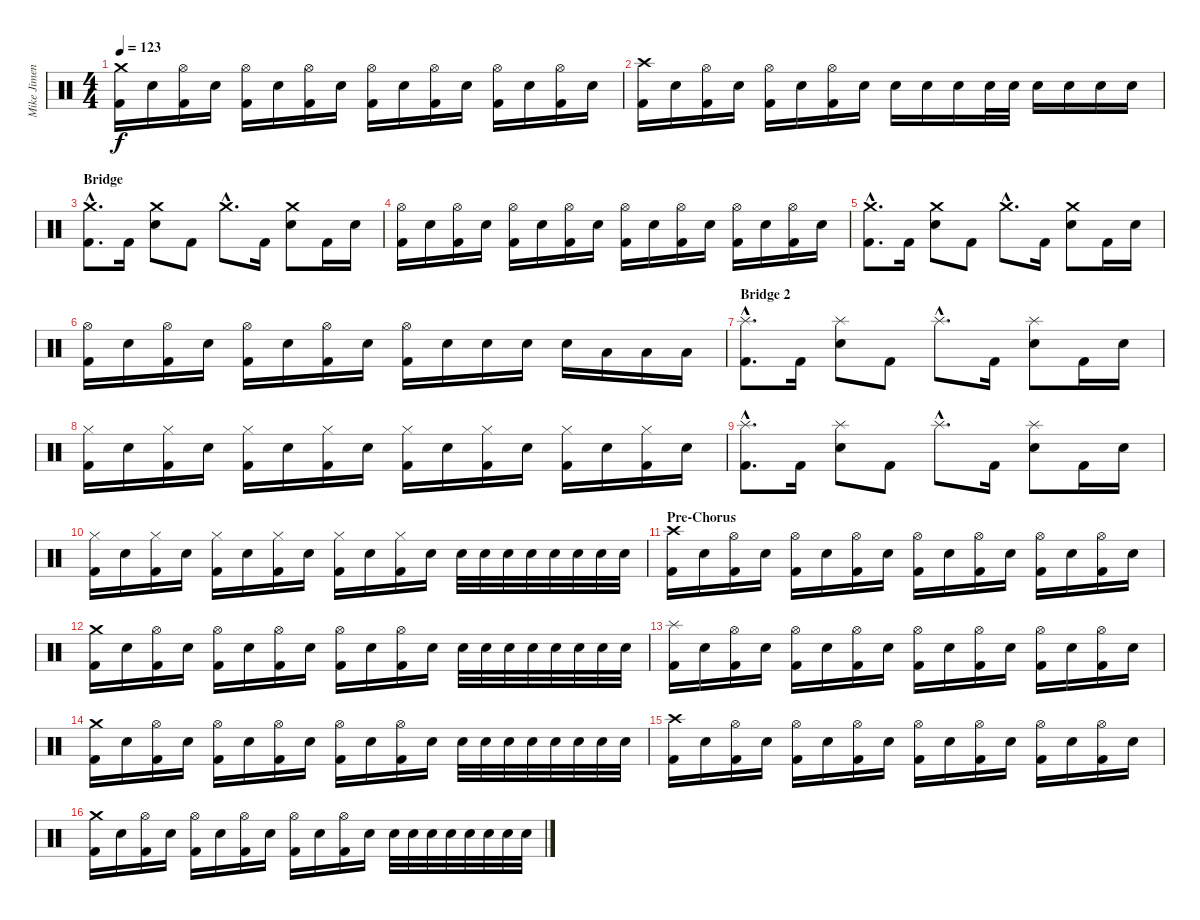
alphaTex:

\track ("Mike Jimenez Drums" "Mike Jimen") {instrument percussion}
\staff {score}
\articulation defaults
\ts (4 4)
\tempo 123
\clef neutral
\ks c
("Crash medium (hit)" "Kick (hit) 2").16{dy f} "Electric Snare (hit)".16 ("Hi-Hat (open)" "Kick (hit) 2").16 "Electric Snare (hit)".16 ("Hi-Hat (open)" "Kick (hit) 2").16 "Electric Snare (hit)".16 ("Hi-Hat (open)" "Kick (hit) 2").16 "Electric Snare (hit)".16 ("Hi-Hat (open)" "Kick (hit) 2").16 "Electric Snare (hit)".16 ("Hi-Hat (open)" "Kick (hit) 2").16 "Electric Snare (hit)".16 ("Hi-Hat (open)" "Kick (hit) 2").16 "Electric Snare (hit)".16 ("Hi-Hat (open)" "Kick (hit) 2").16 "Electric Snare (hit)".16 |
("Crash high (hit)" "Kick (hit) 2").16 "Electric Snare (hit)".16 ("Hi-Hat (open)" "Kick (hit) 2").16 "Electric Snare (hit)".16 ("Hi-Hat (open)" "Kick (hit) 2").16 "Electric Snare (hit)".16 ("Hi-Hat (open)" "Kick (hit) 2").16 "Electric Snare (hit)".16 "Electric Snare (hit)".16 "Electric Snare (hit)".16 "Electric Snare (hit)".16 "Electric Snare (hit)".32 "Electric Snare (hit)".32 "Electric Snare (hit)".16 "Electric Snare (hit)".16 "Electric Snare (hit)".16 "Electric Snare (hit)".16 |
\section ("" "Bridge")
("Crash medium (hit)"{hac} "Kick (hit) 2"{hac}).8{d} "Kick (hit) 2".16 ("Crash medium (hit)" "Electric Snare (hit)").8 "Kick (hit) 2".8 "Crash medium (hit)"{hac}.8{d} "Kick (hit) 2".16 ("Crash medium (hit)" "Electric Snare (hit)").8 "Kick (hit) 2".16 "Electric Snare (hit)".16 |
("Hi-Hat (open)" "Kick (hit) 2").16 "Electric Snare (hit)".16 ("Hi-Hat (open)" "Kick (hit) 2").16 "Electric Snare (hit)".16 ("Hi-Hat (open)" "Kick (hit) 2").16 "Electric Snare (hit)".16 ("Hi-Hat (open)" "Kick (hit) 2").16 "Electric Snare (hit)".16 ("Hi-Hat (open)" "Kick (hit) 2").16 "Electric Snare (hit)".16 ("Hi-Hat (open)" "Kick (hit) 2").16 "Electric Snare (hit)".16 ("Hi-Hat (open)" "Kick (hit) 2").16 "Electric Snare (hit)".16 ("Hi-Hat (open)" "Kick (hit) 2").16 "Electric Snare (hit)".16 |
("Crash medium (hit)"{hac} "Kick (hit) 2"{hac}).8{d} "Kick (hit) 2".16 ("Crash medium (hit)" "Electric Snare (hit)").8 "Kick (hit) 2".8 "Crash medium (hit)"{hac}.8{d} "Kick (hit) 2".16 ("Crash medium (hit)" "Electric Snare (hit)").8 "Kick (hit) 2".16 "Electric Snare (hit)".16 |
("Hi-Hat (open)" "Kick (hit) 2").16 "Electric Snare (hit)".16 ("Hi-Hat (open)" "Kick (hit) 2").16 "Electric Snare (hit)".16 ("Hi-Hat (open)" "Kick (hit) 2").16 "Electric Snare (hit)".16 ("Hi-Hat (open)" "Kick (hit) 2").16 "Electric Snare (hit)".16 ("Hi-Hat (open)" "Kick (hit) 2").16 "Electric Snare (hit)".16 "Electric Snare (hit)".16 "Electric Snare (hit)".16 "Electric Snare (hit)".16 "Low Tom (hit)".16 "Low Tom (hit)".16 "Low Tom (hit)".16 |
\section ("" "Bridge 2")
("Splash (hit)"{hac} "Kick (hit) 2"{hac}).8{d} "Kick (hit) 2".16 ("Splash (hit)" "Electric Snare (hit)").8 "Kick (hit) 2".8 "Splash (hit)"{hac}.8{d} "Kick (hit) 2".16 ("Splash (hit)" "Electric Snare (hit)").8 "Kick (hit) 2".16 "Electric Snare (hit)".16 |
("Hi-Hat (closed)" "Kick (hit) 2").16 "Electric Snare (hit)".16 ("Hi-Hat (closed)" "Kick (hit) 2").16 "Electric Snare (hit)".16 ("Hi-Hat (closed)" "Kick (hit) 2").16 "Electric Snare (hit)".16 ("Hi-Hat (closed)" "Kick (hit) 2").16 "Electric Snare (hit)".16 ("Hi-Hat (closed)" "Kick (hit) 2").16 "Electric Snare (hit)".16 ("Hi-Hat (closed)" "Kick (hit) 2").16 "Electric Snare (hit)".16 ("Hi-Hat (closed)" "Kick (hit) 2").16 "Electric Snare (hit)".16 ("Hi-Hat (closed)" "Kick (hit) 2").16 "Electric Snare (hit)".16 |
("Splash (hit)"{hac} "Kick (hit) 2"{hac}).8{d} "Kick (hit) 2".16 ("Splash (hit)" "Electric Snare (hit)").8 "Kick (hit) 2".8 "Splash (hit)"{hac}.8{d} "Kick (hit) 2".16 ("Splash (hit)" "Electric Snare (hit)").8 "Kick (hit) 2".16 "Electric Snare (hit)".16 |
("Hi-Hat (closed)" "Kick (hit) 2").16 "Electric Snare (hit)".16 ("Hi-Hat (closed)" "Kick (hit) 2").16 "Electric Snare (hit)".16 ("Hi-Hat (closed)" "Kick (hit) 2").16 "Electric Snare (hit)".16 ("Hi-Hat (closed)" "Kick (hit) 2").16 "Electric Snare (hit)".16 ("Hi-Hat (closed)" "Kick (hit) 2").16 "Electric Snare (hit)".16 ("Hi-Hat (closed)" "Kick (hit) 2").16 "Electric Snare (hit)".16 "Electric Snare (hit)".32 "Electric Snare (hit)".32 "Electric Snare (hit)".32 "Electric Snare (hit)".32 "Electric Snare (hit)".32 "Electric Snare (hit)".32 "Electric Snare (hit)".32 "Electric Snare (hit)".32 |
\section ("" "Pre-Chorus")
("Crash high (hit)" "Kick (hit) 2").16 "Electric Snare (hit)".16 ("Hi-Hat (open)" "Kick (hit) 2").16 "Electric Snare (hit)".16 ("Hi-Hat (open)" "Kick (hit) 2").16 "Electric Snare (hit)".16 ("Hi-Hat (open)" "Kick (hit) 2").16 "Electric Snare (hit)".16 ("Hi-Hat (open)" "Kick (hit) 2").16 "Electric Snare (hit)".16 ("Hi-Hat (open)" "Kick (hit) 2").16 "Electric Snare (hit)".16 ("Hi-Hat (open)" "Kick (hit) 2").16 "Electric Snare (hit)".16 ("Hi-Hat (open)" "Kick (hit) 2").16 "Electric Snare (hit)".16 |
("Crash medium (hit)" "Kick (hit) 2").16 "Electric Snare (hit)".16 ("Hi-Hat (open)" "Kick (hit) 2").16 "Electric Snare (hit)".16 ("Hi-Hat (open)" "Kick (hit) 2").16 "Electric Snare (hit)".16 ("Hi-Hat (open)" "Kick (hit) 2").16 "Electric Snare (hit)".16 ("Hi-Hat (open)" "Kick (hit) 2").16 "Electric Snare (hit)".16 ("Hi-Hat (open)" "Kick (hit) 2").16 "Electric Snare (hit)".16 "Electric Snare (hit)".32 "Electric Snare (hit)".32 "Electric Snare (hit)".32 "Electric Snare (hit)".32 "Electric Snare (hit)".32 "Electric Snare (hit)".32 "Electric Snare (hit)".32 "Electric Snare (hit)".32 |
("Splash (hit)" "Kick (hit) 2").16 "Electric Snare (hit)".16 ("Hi-Hat (open)" "Kick (hit) 2").16 "Electric Snare (hit)".16 ("Hi-Hat (open)" "Kick (hit) 2").16 "Electric Snare (hit)".16 ("Hi-Hat (open)" "Kick (hit) 2").16 "Electric Snare (hit)".16 ("Hi-Hat (open)" "Kick (hit) 2").16 "Electric Snare (hit)".16 ("Hi-Hat (open)" "Kick (hit) 2").16 "Electric Snare (hit)".16 ("Hi-Hat (open)" "Kick (hit) 2").16 "Electric Snare (hit)".16 ("Hi-Hat (open)" "Kick (hit) 2").16 "Electric Snare (hit)".16 |
("Crash medium (hit)" "Kick (hit) 2").16 "Electric Snare (hit)".16 ("Hi-Hat (open)" "Kick (hit) 2").16 "Electric Snare (hit)".16 ("Hi-Hat (open)" "Kick (hit) 2").16 "Electric Snare (hit)".16 ("Hi-Hat (open)" "Kick (hit) 2").16 "Electric Snare (hit)".16 ("Hi-Hat (open)" "Kick (hit) 2").16 "Electric Snare (hit)".16 ("Hi-Hat (open)" "Kick (hit) 2").16 "Electric Snare (hit)".16 "Electric Snare (hit)".32 "Electric Snare (hit)".32 "Electric Snare (hit)".32 "Electric Snare (hit)".32 "Electric Snare (hit)".32 "Electric Snare (hit)".32 "Electric Snare (hit)".32 "Electric Snare (hit)".32 |
("Crash high (hit)" "Kick (hit) 2").16 "Electric Snare (hit)".16 ("Hi-Hat (open)" "Kick (hit) 2").16 "Electric Snare (hit)".16 ("Hi-Hat (open)" "Kick (hit) 2").16 "Electric Snare (hit)".16 ("Hi-Hat (open)" "Kick (hit) 2").16 "Electric Snare (hit)".16 ("Hi-Hat (open)" "Kick (hit) 2").16 "Electric Snare (hit)".16 ("Hi-Hat (open)" "Kick (hit) 2").16 "Electric Snare (hit)".16 ("Hi-Hat (open)" "Kick (hit) 2").16 "Electric Snare (hit)".16 ("Hi-Hat (open)" "Kick (hit) 2").16 "Electric Snare (hit)".16 |
("Crash medium (hit)" "Kick (hit) 2").16 "Electric Snare (hit)".16 ("Hi-Hat (open)" "Kick (hit) 2").16 "Electric Snare (hit)".16 ("Hi-Hat (open)" "Kick (hit) 2").16 "Electric Snare (hit)".16 ("Hi-Hat (open)" "Kick (hit) 2").16 "Electric Snare (hit)".16 ("Hi-Hat (open)" "Kick (hit) 2").16 "Electric Snare (hit)".16 ("Hi-Hat (open)" "Kick (hit) 2").16 "Electric Snare (hit)".16 "Electric Snare (hit)".32 "Electric Snare (hit)".32 "Electric Snare (hit)".32 "Electric Snare (hit)".32 "Electric Snare (hit)".32 "Electric Snare (hit)".32 "Electric Snare (hit)".32 "Electric Snare (hit)".32
